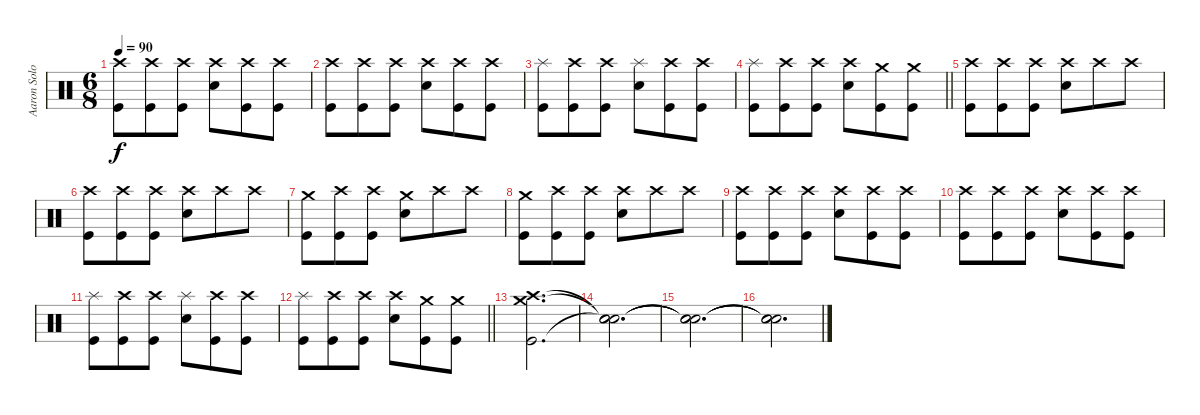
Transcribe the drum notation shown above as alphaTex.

\track ("Aaron Solowoniuk" "Aaron Solo") {instrument percussion}
\staff {score}
\articulation defaults
\ts (6 8)
\tempo 90
\clef neutral
\ks c
("Crash high (hit)" "Kick (hit)").8{dy f} ("Crash high (hit)" "Kick (hit)").8 ("Crash high (hit)" "Kick (hit)").8 ("Crash high (hit)" "Electric Snare (hit)").8 ("Crash high (hit)" "Kick (hit)").8 ("Crash high (hit)" "Kick (hit)").8 |
("Crash high (hit)" "Kick (hit)").8 ("Crash high (hit)" "Kick (hit)").8 ("Crash high (hit)" "Kick (hit)").8 ("Crash high (hit)" "Electric Snare (hit)").8 ("Crash high (hit)" "Kick (hit)").8 ("Crash high (hit)" "Kick (hit)").8 |
("Splash (hit)" "Kick (hit)").8 ("Crash high (hit)" "Kick (hit)").8 ("Crash high (hit)" "Kick (hit)").8 ("Splash (hit)" "Electric Snare (hit)").8 ("Crash high (hit)" "Kick (hit)").8 ("Crash high (hit)" "Kick (hit)").8 |
\barLineRight lightlight
("Splash (hit)" "Kick (hit)").8 ("Crash high (hit)" "Kick (hit)").8 ("Crash high (hit)" "Kick (hit)").8 ("Crash high (hit)" "Electric Snare (hit)").8 ("Crash medium (hit)" "Kick (hit)").8 ("Crash medium (hit)" "Kick (hit)").8 |
("Crash high (hit)" "Kick (hit)").8 ("Crash high (hit)" "Kick (hit)").8 ("Crash high (hit)" "Kick (hit)").8 ("Crash high (hit)" "Electric Snare (hit)").8 "Crash high (hit)".8 "Crash high (hit)".8 |
("Crash high (hit)" "Kick (hit)").8 ("Crash high (hit)" "Kick (hit)").8 ("Crash high (hit)" "Kick (hit)").8 ("Crash high (hit)" "Electric Snare (hit)").8 "Crash high (hit)".8 "Crash high (hit)".8 |
("Crash medium (hit)" "Kick (hit)").8 ("Crash high (hit)" "Kick (hit)").8 ("Crash high (hit)" "Kick (hit)").8 ("Crash medium (hit)" "Electric Snare (hit)").8 "Crash high (hit)".8 "Crash high (hit)".8 |
("Crash medium (hit)" "Kick (hit)").8 ("Crash high (hit)" "Kick (hit)").8 ("Crash high (hit)" "Kick (hit)").8 ("Crash high (hit)" "Electric Snare (hit)").8 "Crash high (hit)".8 "Crash high (hit)".8 |
("Crash high (hit)" "Kick (hit)").8 ("Crash high (hit)" "Kick (hit)").8 ("Crash high (hit)" "Kick (hit)").8 ("Crash high (hit)" "Electric Snare (hit)").8 ("Crash high (hit)" "Kick (hit)").8 ("Crash high (hit)" "Kick (hit)").8 |
("Crash high (hit)" "Kick (hit)").8 ("Crash high (hit)" "Kick (hit)").8 ("Crash high (hit)" "Kick (hit)").8 ("Crash high (hit)" "Electric Snare (hit)").8 ("Crash high (hit)" "Kick (hit)").8 ("Crash high (hit)" "Kick (hit)").8 |
("Splash (hit)" "Kick (hit)").8 ("Crash high (hit)" "Kick (hit)").8 ("Crash high (hit)" "Kick (hit)").8 ("Splash (hit)" "Electric Snare (hit)").8 ("Crash high (hit)" "Kick (hit)").8 ("Crash high (hit)" "Kick (hit)").8 |
\barLineRight lightlight
("Splash (hit)" "Kick (hit)").8 ("Crash high (hit)" "Kick (hit)").8 ("Crash high (hit)" "Kick (hit)").8 ("Crash high (hit)" "Electric Snare (hit)").8 ("Crash medium (hit)" "Kick (hit)").8 ("Crash medium (hit)" "Kick (hit)").8 |
("Crash medium (hit)" "Crash high (hit)" "Kick (hit)").2{d} |
("Snare (hit)"{t} "Snare (hit)"{t} "Snare (hit)"{t}).2{d} |
("Snare (hit)"{t} "Snare (hit)"{t} "Snare (hit)"{t}).2{d} |
("Snare (hit)"{t} "Snare (hit)"{t} "Snare (hit)"{t}).2{d}
